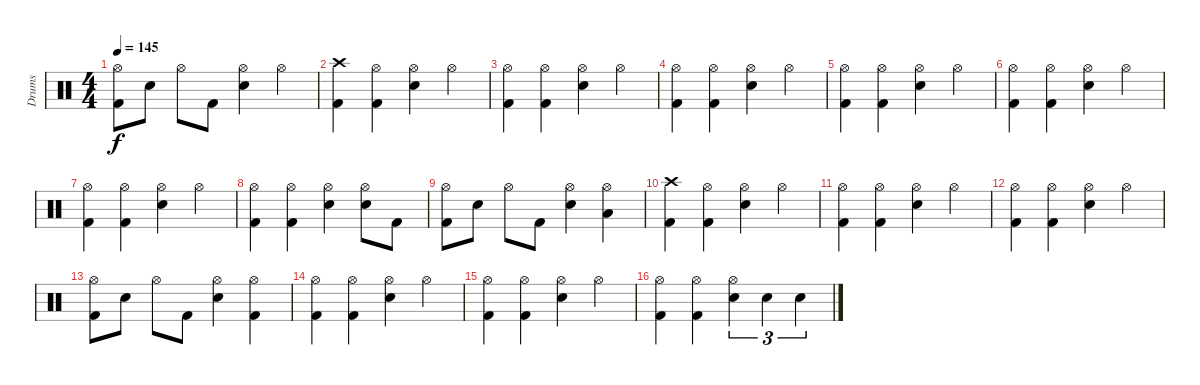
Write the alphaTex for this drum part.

\track ("Drums" "Drums") {instrument percussion}
\staff {score}
\articulation defaults
\ts (4 4)
\tempo 145
\clef neutral
\ks c
("Kick (hit) 2" "Hi-Hat (open)").8{dy f} "Snare (hit) 2".8 "Hi-Hat (open)".8 "Kick (hit) 2".8 ("Snare (hit) 2" "Hi-Hat (open)").4 "Hi-Hat (open)".4 |
("Crash high (hit)" "Kick (hit) 2").4 ("Kick (hit) 2" "Hi-Hat (open)").4 ("Snare (hit) 2" "Hi-Hat (open)").4 "Hi-Hat (open)".4 |
("Kick (hit) 2" "Hi-Hat (open)").4 ("Kick (hit) 2" "Hi-Hat (open)").4 ("Snare (hit) 2" "Hi-Hat (open)").4 "Hi-Hat (open)".4 |
("Kick (hit) 2" "Hi-Hat (open)").4 ("Kick (hit) 2" "Hi-Hat (open)").4 ("Snare (hit) 2" "Hi-Hat (open)").4 "Hi-Hat (open)".4 |
("Kick (hit) 2" "Hi-Hat (open)").4 ("Kick (hit) 2" "Hi-Hat (open)").4 ("Snare (hit) 2" "Hi-Hat (open)").4 "Hi-Hat (open)".4 |
("Kick (hit) 2" "Hi-Hat (open)").4 ("Kick (hit) 2" "Hi-Hat (open)").4 ("Snare (hit) 2" "Hi-Hat (open)").4 "Hi-Hat (open)".4 |
("Kick (hit) 2" "Hi-Hat (open)").4 ("Kick (hit) 2" "Hi-Hat (open)").4 ("Snare (hit) 2" "Hi-Hat (open)").4 "Hi-Hat (open)".4 |
("Kick (hit) 2" "Hi-Hat (open)").4 ("Kick (hit) 2" "Hi-Hat (open)").4 ("Snare (hit) 2" "Hi-Hat (open)").4 ("Snare (hit) 2" "Hi-Hat (open)").8 "Kick (hit) 2".8 |
("Kick (hit) 2" "Hi-Hat (open)").8 "Snare (hit) 2".8 "Hi-Hat (open)".8 "Kick (hit) 2".8 ("Snare (hit) 2" "Hi-Hat (open)").4 ("Low Tom (hit)" "Hi-Hat (open)").4 |
("Crash high (hit)" "Kick (hit) 2").4{volume 12} ("Kick (hit) 2" "Hi-Hat (open)").4 ("Snare (hit) 2" "Hi-Hat (open)").4 "Hi-Hat (open)".4 |
("Kick (hit) 2" "Hi-Hat (open)").4 ("Kick (hit) 2" "Hi-Hat (open)").4 ("Snare (hit) 2" "Hi-Hat (open)").4 "Hi-Hat (open)".4 |
("Kick (hit) 2" "Hi-Hat (open)").4 ("Kick (hit) 2" "Hi-Hat (open)").4 ("Snare (hit) 2" "Hi-Hat (open)").4 "Hi-Hat (open)".4 |
("Kick (hit) 2" "Hi-Hat (open)").8 "Snare (hit) 2".8 "Hi-Hat (open)".8 "Kick (hit) 2".8 ("Snare (hit) 2" "Hi-Hat (open)").4 ("Kick (hit) 2" "Hi-Hat (open)").4 |
("Kick (hit) 2" "Hi-Hat (open)").4 ("Kick (hit) 2" "Hi-Hat (open)").4 ("Snare (hit) 2" "Hi-Hat (open)").4 "Hi-Hat (open)".4 |
("Kick (hit) 2" "Hi-Hat (open)").4 ("Kick (hit) 2" "Hi-Hat (open)").4 ("Snare (hit) 2" "Hi-Hat (open)").4 "Hi-Hat (open)".4 |
("Kick (hit) 2" "Hi-Hat (open)").4 ("Kick (hit) 2" "Hi-Hat (open)").4 ("Snare (hit) 2" "Hi-Hat (open)").4{tu (3 2)} "Snare (hit) 2".4{tu (3 2)} "Snare (hit) 2".4{tu (3 2)}
